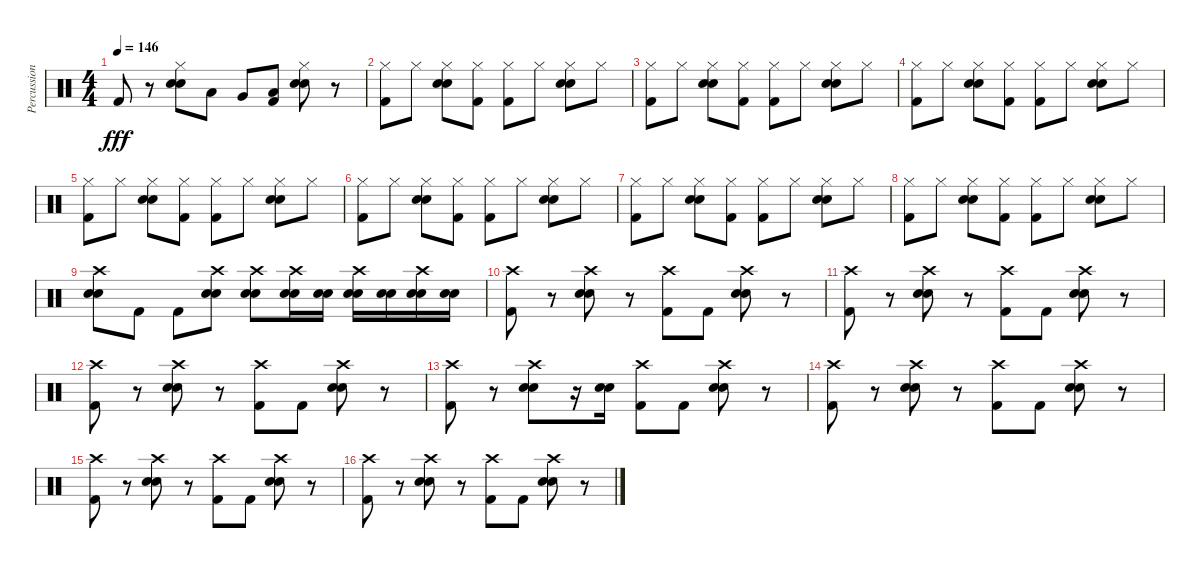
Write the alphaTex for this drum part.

\track ("Percussion" "Percussion") {instrument percussion}
\staff {score}
\articulation defaults
\ts (4 4)
\tempo 146
\clef neutral
\ks c "Kick (hit) 2".8{dy fff}
r.8 ("Hi-Hat (closed)" "Electric Snare (hit)" "Snare (hit) 2").8 "Low Tom (hit)".8 "Very Low Tom (hit)".8 ("Low Floor Tom (hit)" "Kick (hit) 2").8 ("Hi-Hat (closed)" "Snare (hit) 2" "Electric Snare (hit)").8 r.8 |
("Hi-Hat (closed)" "Kick (hit) 2").8 "Hi-Hat (closed)".8 ("Hi-Hat (closed)" "Snare (hit) 2" "Electric Snare (hit)").8 ("Hi-Hat (closed)" "Kick (hit) 2").8 ("Hi-Hat (closed)" "Kick (hit) 2").8 "Hi-Hat (closed)".8 ("Hi-Hat (closed)" "Snare (hit) 2" "Electric Snare (hit)").8 "Hi-Hat (closed)".8 |
("Hi-Hat (closed)" "Kick (hit) 2").8 "Hi-Hat (closed)".8 ("Hi-Hat (closed)" "Snare (hit) 2" "Electric Snare (hit)").8 ("Hi-Hat (closed)" "Kick (hit) 2").8 ("Hi-Hat (closed)" "Kick (hit) 2").8 "Hi-Hat (closed)".8 ("Hi-Hat (closed)" "Snare (hit) 2" "Electric Snare (hit)").8 "Hi-Hat (closed)".8 |
("Hi-Hat (closed)" "Kick (hit) 2").8 "Hi-Hat (closed)".8 ("Hi-Hat (closed)" "Snare (hit) 2" "Electric Snare (hit)").8 ("Hi-Hat (closed)" "Kick (hit) 2").8 ("Hi-Hat (closed)" "Kick (hit) 2").8 "Hi-Hat (closed)".8 ("Hi-Hat (closed)" "Snare (hit) 2" "Electric Snare (hit)").8 "Hi-Hat (closed)".8 |
("Hi-Hat (closed)" "Kick (hit) 2").8 "Hi-Hat (closed)".8 ("Hi-Hat (closed)" "Snare (hit) 2" "Electric Snare (hit)").8 ("Hi-Hat (closed)" "Kick (hit) 2").8 ("Hi-Hat (closed)" "Kick (hit) 2").8 "Hi-Hat (closed)".8 ("Hi-Hat (closed)" "Snare (hit) 2" "Electric Snare (hit)").8 "Hi-Hat (closed)".8 |
("Hi-Hat (closed)" "Kick (hit) 2").8 "Hi-Hat (closed)".8 ("Hi-Hat (closed)" "Snare (hit) 2" "Electric Snare (hit)").8 ("Hi-Hat (closed)" "Kick (hit) 2").8 ("Hi-Hat (closed)" "Kick (hit) 2").8 "Hi-Hat (closed)".8 ("Hi-Hat (closed)" "Snare (hit) 2" "Electric Snare (hit)").8 "Hi-Hat (closed)".8 |
("Hi-Hat (closed)" "Kick (hit) 2").8 "Hi-Hat (closed)".8 ("Hi-Hat (closed)" "Snare (hit) 2" "Electric Snare (hit)").8 ("Hi-Hat (closed)" "Kick (hit) 2").8 ("Hi-Hat (closed)" "Kick (hit) 2").8 "Hi-Hat (closed)".8 ("Hi-Hat (closed)" "Snare (hit) 2" "Electric Snare (hit)").8 "Hi-Hat (closed)".8 |
("Hi-Hat (closed)" "Kick (hit) 2").8 "Hi-Hat (closed)".8 ("Hi-Hat (closed)" "Snare (hit) 2" "Electric Snare (hit)").8 ("Hi-Hat (closed)" "Kick (hit) 2").8 ("Hi-Hat (closed)" "Kick (hit) 2").8 "Hi-Hat (closed)".8 ("Hi-Hat (closed)" "Snare (hit) 2" "Electric Snare (hit)").8 "Hi-Hat (closed)".8 |
("Crash high (hit)" "Electric Snare (hit)" "Snare (hit) 2").8 "Kick (hit) 2".8 "Kick (hit) 2".8 ("Crash high (hit)" "Electric Snare (hit)" "Snare (hit) 2").8 ("Crash high (hit)" "Electric Snare (hit)" "Snare (hit) 2").8 ("Crash high (hit)" "Electric Snare (hit)" "Snare (hit) 2").16 ("Electric Snare (hit)" "Snare (hit) 2").16 ("Crash high (hit)" "Electric Snare (hit)" "Snare (hit) 2").16 ("Electric Snare (hit)" "Snare (hit) 2").16 ("Crash high (hit)" "Electric Snare (hit)" "Snare (hit) 2").16 ("Electric Snare (hit)" "Snare (hit) 2").16 |
("Crash high (hit)" "Kick (hit) 2").8 r.8 ("Crash high (hit)" "Electric Snare (hit)" "Snare (hit) 2").8 r.8 ("Crash high (hit)" "Kick (hit) 2").8 "Kick (hit) 2".8 ("Crash high (hit)" "Snare (hit) 2" "Electric Snare (hit)").8 r.8 |
("Crash high (hit)" "Kick (hit) 2").8 r.8 ("Crash high (hit)" "Electric Snare (hit)" "Snare (hit) 2").8 r.8 ("Crash high (hit)" "Kick (hit) 2").8 "Kick (hit) 2".8 ("Crash high (hit)" "Snare (hit) 2" "Electric Snare (hit)").8 r.8 |
("Crash high (hit)" "Kick (hit) 2").8 r.8 ("Crash high (hit)" "Electric Snare (hit)" "Snare (hit) 2").8 r.8 ("Crash high (hit)" "Kick (hit) 2").8 "Kick (hit) 2".8 ("Crash high (hit)" "Snare (hit) 2" "Electric Snare (hit)").8 r.8 |
("Crash high (hit)" "Kick (hit) 2").8 r.8 ("Crash high (hit)" "Electric Snare (hit)" "Snare (hit) 2").8 r.16 ("Electric Snare (hit)" "Snare (hit) 2").16 ("Crash high (hit)" "Kick (hit) 2").8 "Kick (hit) 2".8 ("Crash high (hit)" "Electric Snare (hit)" "Snare (hit) 2").8 r.8 |
("Crash high (hit)" "Kick (hit) 2").8 r.8 ("Crash high (hit)" "Electric Snare (hit)" "Snare (hit) 2").8 r.8 ("Crash high (hit)" "Kick (hit) 2").8 "Kick (hit) 2".8 ("Crash high (hit)" "Snare (hit) 2" "Electric Snare (hit)").8 r.8 |
("Crash high (hit)" "Kick (hit) 2").8 r.8 ("Crash high (hit)" "Electric Snare (hit)" "Snare (hit) 2").8 r.8 ("Crash high (hit)" "Kick (hit) 2").8 "Kick (hit) 2".8 ("Crash high (hit)" "Snare (hit) 2" "Electric Snare (hit)").8 r.8 |
("Crash high (hit)" "Kick (hit) 2").8 r.8 ("Crash high (hit)" "Electric Snare (hit)" "Snare (hit) 2").8 r.8 ("Crash high (hit)" "Kick (hit) 2").8 "Kick (hit) 2".8 ("Crash high (hit)" "Snare (hit) 2" "Electric Snare (hit)").8 r.8
